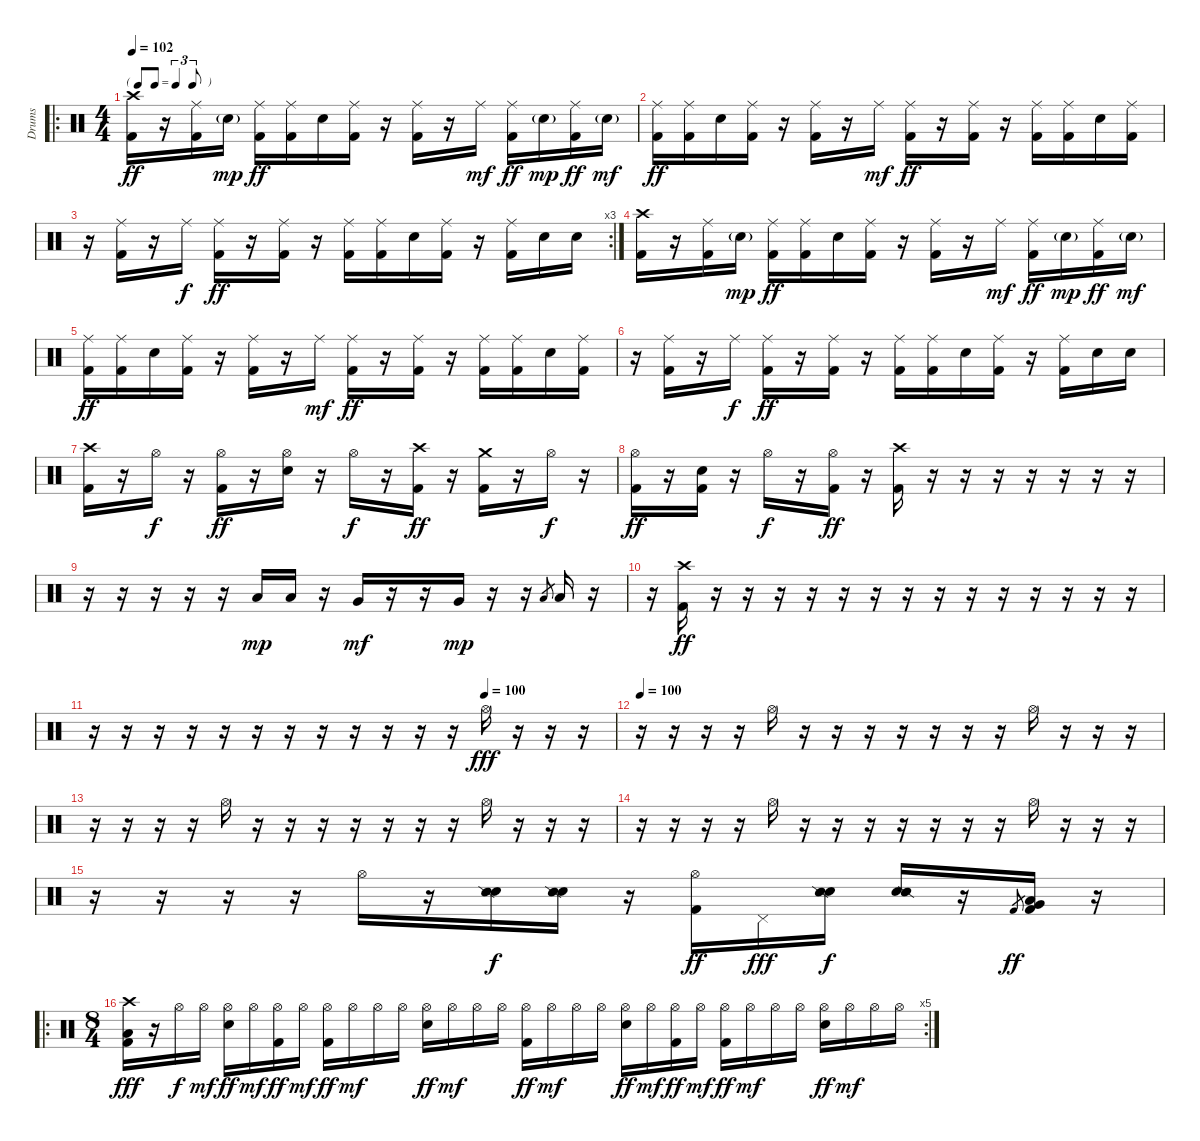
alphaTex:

\track ("Drums" "Drums") {instrument percussion}
\staff {score}
\articulation defaults
\ro
\ts (4 4)
\tf triplet8th
\tempo 102
\clef neutral
\ks c
("Crash high (hit)" "Kick (hit) 2").16{dy ff} r.16 ("Ride (middle)" "Kick (hit) 2").16 "Electric Snare (hit)"{g}.16{dy mp} ("Ride (middle)" "Kick (hit) 2").16{dy ff} ("Ride (middle)" "Kick (hit) 2").16 "Electric Snare (hit)".16 ("Ride (middle)" "Kick (hit) 2").16 r.16 ("Ride (middle)" "Kick (hit) 2").16 r.16 "Ride (middle)".16{dy mf} ("Ride (middle)" "Kick (hit) 2").16{dy ff} "Electric Snare (hit)"{g}.16{dy mp} ("Ride (middle)" "Kick (hit) 2").16{dy ff} "Electric Snare (hit)"{g}.16{dy mf} |
("Ride (middle)" "Kick (hit) 2").16{dy ff} ("Ride (middle)" "Kick (hit) 2").16 "Electric Snare (hit)".16 ("Ride (middle)" "Kick (hit) 2").16 r.16 ("Ride (middle)" "Kick (hit) 2").16 r.16 "Ride (middle)".16{dy mf} ("Ride (middle)" "Kick (hit) 2").16{dy ff} r.16 ("Ride (middle)" "Kick (hit) 2").16 r.16 ("Ride (middle)" "Kick (hit) 2").16 ("Ride (middle)" "Kick (hit) 2").16 "Electric Snare (hit)".16 ("Ride (middle)" "Kick (hit) 2").16 |
\rc 3
r.16 ("Ride (middle)" "Kick (hit) 2").16 r.16 "Ride (middle)".16{dy f} ("Ride (middle)" "Kick (hit) 2").16{dy ff} r.16 ("Ride (middle)" "Kick (hit) 2").16 r.16 ("Ride (middle)" "Kick (hit) 2").16 ("Ride (middle)" "Kick (hit) 2").16 "Electric Snare (hit)".16 ("Ride (middle)" "Kick (hit) 2").16 r.16 ("Ride (middle)" "Kick (hit) 2").16 "Electric Snare (hit)".16 "Electric Snare (hit)".16 |
("Crash high (hit)" "Kick (hit) 2").16 r.16 ("Ride (middle)" "Kick (hit) 2").16 "Electric Snare (hit)"{g}.16{dy mp} ("Ride (middle)" "Kick (hit) 2").16{dy ff} ("Ride (middle)" "Kick (hit) 2").16 "Electric Snare (hit)".16 ("Ride (middle)" "Kick (hit) 2").16 r.16 ("Ride (middle)" "Kick (hit) 2").16 r.16 "Ride (middle)".16{dy mf} ("Ride (middle)" "Kick (hit) 2").16{dy ff} "Electric Snare (hit)"{g}.16{dy mp} ("Ride (middle)" "Kick (hit) 2").16{dy ff} "Electric Snare (hit)"{g}.16{dy mf} |
("Ride (middle)" "Kick (hit) 2").16{dy ff} ("Ride (middle)" "Kick (hit) 2").16 "Electric Snare (hit)".16 ("Ride (middle)" "Kick (hit) 2").16 r.16 ("Ride (middle)" "Kick (hit) 2").16 r.16 "Ride (middle)".16{dy mf} ("Ride (middle)" "Kick (hit) 2").16{dy ff} r.16 ("Ride (middle)" "Kick (hit) 2").16 r.16 ("Ride (middle)" "Kick (hit) 2").16 ("Ride (middle)" "Kick (hit) 2").16 "Electric Snare (hit)".16 ("Ride (middle)" "Kick (hit) 2").16 |
r.16 ("Ride (middle)" "Kick (hit) 2").16 r.16 "Ride (middle)".16{dy f} ("Ride (middle)" "Kick (hit) 2").16{dy ff} r.16 ("Ride (middle)" "Kick (hit) 2").16 r.16 ("Ride (middle)" "Kick (hit) 2").16 ("Ride (middle)" "Kick (hit) 2").16 "Electric Snare (hit)".16 ("Ride (middle)" "Kick (hit) 2").16 r.16 ("Ride (middle)" "Kick (hit) 2").16 "Electric Snare (hit)".16 "Electric Snare (hit)".16 |
("Crash high (hit)" "Kick (hit) 2").16 r.16 "Hi-Hat (open)".16{dy f} r.16 ("Hi-Hat (open)" "Kick (hit) 2").16{dy ff} r.16 ("Hi-Hat (open)" "Electric Snare (hit)").16 r.16 "Hi-Hat (open)".16{dy f} r.16 ("Crash high (hit)" "Kick (hit) 2").16{dy ff} r.16 ("Crash medium (hit)" "Kick (hit) 2").16 r.16 "Hi-Hat (open)".16{dy f} r.16 |
("Hi-Hat (open)" "Kick (hit) 2").16{dy ff} r.16 ("Electric Snare (hit)" "Kick (hit) 2").16 r.16 "Hi-Hat (open)".16{dy f} r.16 ("Hi-Hat (open)" "Kick (hit) 2").16{dy ff} r.16 ("Crash high (hit)" "Kick (hit) 2").16 r.16 r.16 r.16 r.16 r.16 r.16 r.16 |
r.16 r.16 r.16 r.16 r.16 "Low Tom (hit)".16{dy mp} "Low Tom (hit)".16 r.16 "Very Low Tom (hit)".16{dy mf} r.16 r.16 "Very Low Tom (hit)".16{dy mp} r.16 r.16 "Low Floor Tom (hit)".8{gr} "Low Floor Tom (hit)".16 r.16 |
r.16 ("Crash high (hit)" "Kick (hit) 2").16{dy ff} r.16 r.16 r.16 r.16 r.16 r.16 r.16 r.16 r.16 r.16 r.16 r.16 r.16 r.16 |
\tempo (100 0.75)
r.16 r.16 r.16 r.16 r.16 r.16 r.16 r.16 r.16 r.16 r.16 r.16 "Hi-Hat (open)".16{dy fff} r.16 r.16 r.16 |
\tempo 100
r.16 r.16 r.16 r.16 "Hi-Hat (open)".16 r.16 r.16 r.16 r.16 r.16 r.16 r.16 "Hi-Hat (open)".16 r.16 r.16 r.16 |
r.16 r.16 r.16 r.16 "Hi-Hat (open)".16 r.16 r.16 r.16 r.16 r.16 r.16 r.16 "Hi-Hat (open)".16 r.16 r.16 r.16 |
r.16 r.16 r.16 r.16 "Hi-Hat (open)".16 r.16 r.16 r.16 r.16 r.16 r.16 r.16 "Hi-Hat (open)".16 r.16 r.16 r.16 |
r.16 r.16 r.16 r.16 "Hi-Hat (open)".16 r.16 ("Electric Snare (hit)" "Snare (side stick) 2").16{dy f} ("Electric Snare (hit)" "Snare (side stick) 2").16 r.16 ("Hi-Hat (open)" "Kick (hit) 2").16{dy ff} "Pedal Hi-Hat (hit)".16{dy fff} ("Electric Snare (hit)" "Snare (side stick) 2").16{dy f} ("Electric Snare (hit)" "Snare (side stick) 2").16 r.16 "Kick (hit) 2".8{gr dy ff} ("Very Low Tom (hit)" "Low Floor Tom (hit)" "Kick (hit) 2").16 r.16 |
\ro
\rc 5
\ts (8 4)
("Crash high (hit)" "Low Floor Tom (hit)" "Kick (hit) 2").16{dy fff} r.16 "Hi-Hat (open)".16{dy f} "Hi-Hat (open)".16{dy mf} ("Hi-Hat (open)" "Electric Snare (hit)").16{dy ff} "Hi-Hat (open)".16{dy mf} ("Hi-Hat (open)" "Kick (hit) 2").16{dy ff} "Hi-Hat (open)".16{dy mf} ("Hi-Hat (open)" "Kick (hit) 2").16{dy ff} "Hi-Hat (open)".16{dy mf} "Hi-Hat (open)".16 "Hi-Hat (open)".16 ("Hi-Hat (open)" "Electric Snare (hit)").16{dy ff} "Hi-Hat (open)".16{dy mf} "Hi-Hat (open)".16 "Hi-Hat (open)".16 ("Hi-Hat (open)" "Kick (hit) 2").16{dy ff} "Hi-Hat (open)".16{dy mf} "Hi-Hat (open)".16 "Hi-Hat (open)".16 ("Hi-Hat (open)" "Electric Snare (hit)").16{dy ff} "Hi-Hat (open)".16{dy mf} ("Hi-Hat (open)" "Kick (hit) 2").16{dy ff} "Hi-Hat (open)".16{dy mf} ("Hi-Hat (open)" "Kick (hit) 2").16{dy ff} "Hi-Hat (open)".16{dy mf} "Hi-Hat (open)".16 "Hi-Hat (open)".16 ("Hi-Hat (open)" "Electric Snare (hit)").16{dy ff} "Hi-Hat (open)".16{dy mf} "Hi-Hat (open)".16 "Hi-Hat (open)".16
